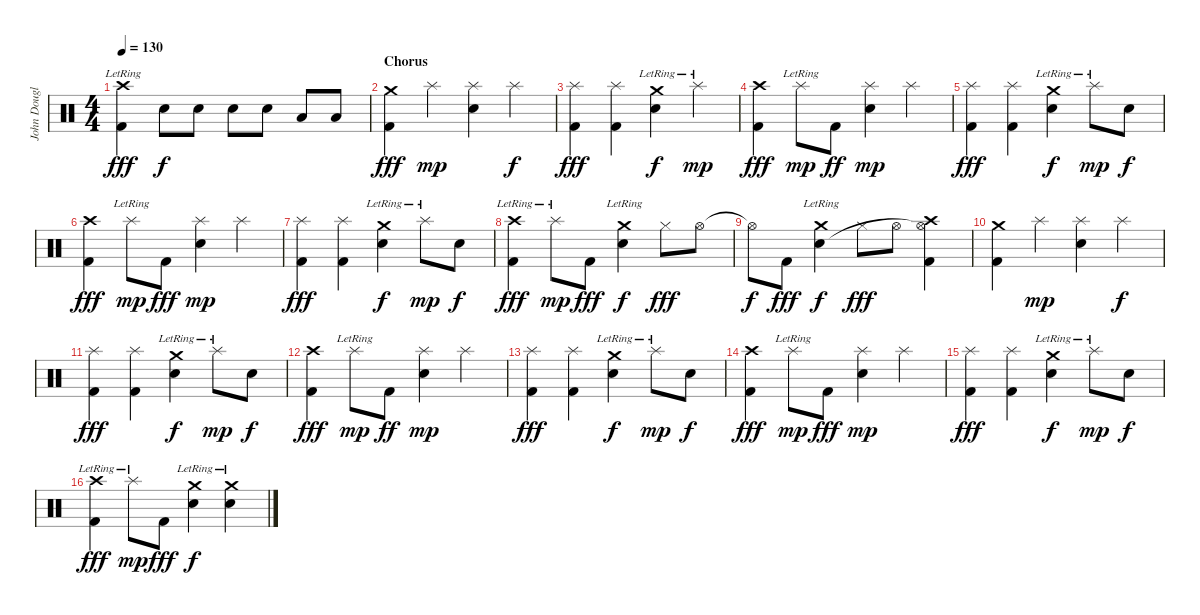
\track ("John Douglas (Drums)" "John Dougl") {instrument percussion}
\staff {score}
\articulation defaults
\ts (4 4)
\tempo 130
\clef neutral
\ks c
("Crash high (hit)"{lr} "Kick (hit) 2").4{dy fff} "Snare (hit) 2".8{dy f} "Snare (hit) 2".8 "Snare (hit) 2".8 "Snare (hit) 2".8 "Low Tom (hit)".8 "Low Tom (hit)".8 |
\section ("" "Chorus")
("Crash medium (hit)" "Kick (hit) 2").4{dy fff} "Splash (hit)".4{dy mp} ("Splash (hit)" "Snare (hit) 2").4 "Splash (hit)".4{dy f} |
("Splash (hit)" "Kick (hit) 2").4{dy fff} ("Splash (hit)" "Kick (hit) 2").4 ("Crash medium (hit)"{lr} "Snare (hit) 2").4{dy f} "Splash (hit)"{lr}.4{dy mp} |
("Crash high (hit)" "Kick (hit) 2").4{dy fff} "Splash (hit)"{lr}.8{dy mp} "Kick (hit) 2".8{dy ff} ("Splash (hit)" "Snare (hit) 2").4{dy mp} "Splash (hit)".4 |
("Splash (hit)" "Kick (hit) 2").4{dy fff} ("Splash (hit)" "Kick (hit) 2").4 ("Crash medium (hit)"{lr} "Snare (hit) 2").4{dy f} "Splash (hit)"{lr}.8{dy mp} "Snare (hit) 2".8{dy f} |
("Crash high (hit)" "Kick (hit) 2").4{dy fff} "Splash (hit)"{lr}.8{dy mp} "Kick (hit) 2".8{dy fff} ("Splash (hit)" "Snare (hit) 2").4{dy mp} "Splash (hit)".4 |
("Splash (hit)" "Kick (hit) 2").4{dy fff} ("Splash (hit)" "Kick (hit) 2").4 ("Crash medium (hit)"{lr} "Snare (hit) 2").4{dy f} "Splash (hit)"{lr}.8{dy mp} "Snare (hit) 2".8{dy f} |
("Crash high (hit)"{lr} "Kick (hit) 2").4{dy fff} "Splash (hit)"{lr}.8{dy mp} "Kick (hit) 2".8{dy fff} ("Crash medium (hit)"{lr} "Snare (hit) 2").4{dy f} "Hi-Hat (closed)".8{dy fff} "Hi-Hat (open)".8 |
"Hi-Hat (open)"{t}.8{dy f} "Kick (hit) 2".8{dy fff} ("Crash medium (hit)"{lr} "Snare (hit) 2").4{dy f} "Hi-Hat (closed)".8{dy fff} "Hi-Hat (open)".8 ("Crash high (hit)" "Hi-Hat (open)"{t} "Kick (hit) 2").4 |
("Crash medium (hit)" "Kick (hit) 2").4 "Splash (hit)".4{dy mp} ("Splash (hit)" "Snare (hit) 2").4 "Splash (hit)".4{dy f} |
("Splash (hit)" "Kick (hit) 2").4{dy fff} ("Splash (hit)" "Kick (hit) 2").4 ("Crash medium (hit)"{lr} "Snare (hit) 2").4{dy f} "Splash (hit)"{lr}.8{dy mp} "Snare (hit) 2".8{dy f} |
("Crash high (hit)" "Kick (hit) 2").4{dy fff} "Splash (hit)"{lr}.8{dy mp} "Kick (hit) 2".8{dy ff} ("Splash (hit)" "Snare (hit) 2").4{dy mp} "Splash (hit)".4 |
("Splash (hit)" "Kick (hit) 2").4{dy fff} ("Splash (hit)" "Kick (hit) 2").4 ("Crash medium (hit)"{lr} "Snare (hit) 2").4{dy f} "Splash (hit)"{lr}.8{dy mp} "Snare (hit) 2".8{dy f} |
("Crash high (hit)" "Kick (hit) 2").4{dy fff} "Splash (hit)"{lr}.8{dy mp} "Kick (hit) 2".8{dy fff} ("Splash (hit)" "Snare (hit) 2").4{dy mp} "Splash (hit)".4 |
("Splash (hit)" "Kick (hit) 2").4{dy fff} ("Splash (hit)" "Kick (hit) 2").4 ("Crash medium (hit)"{lr} "Snare (hit) 2").4{dy f} "Splash (hit)"{lr}.8{dy mp} "Snare (hit) 2".8{dy f} |
("Crash high (hit)"{lr} "Kick (hit) 2").4{dy fff} "Splash (hit)"{lr}.8{dy mp} "Kick (hit) 2".8{dy fff} ("Crash medium (hit)"{lr} "Snare (hit) 2").4{dy f} ("Crash medium (hit)"{lr} "Snare (hit) 2").4
